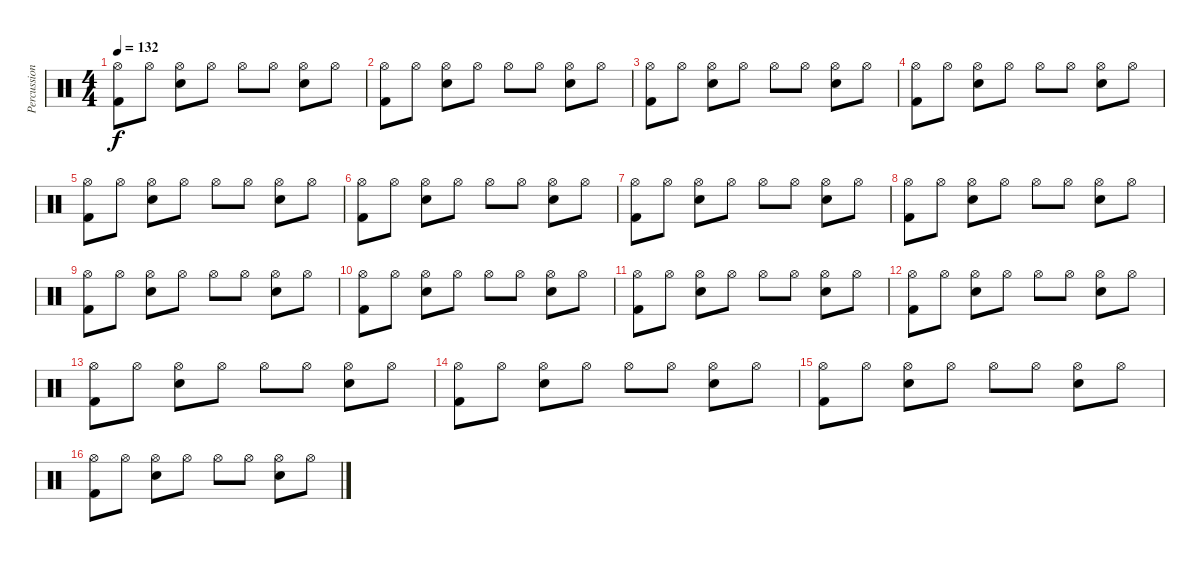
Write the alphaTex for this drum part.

\track ("Percussion" "Percussion") {instrument percussion}
\staff {score}
\articulation defaults
\ts (4 4)
\tempo 132
\clef neutral
\ks c
("Hi-Hat (open)" "Kick (hit) 2").8{dy f} "Hi-Hat (open)".8 ("Hi-Hat (open)" "Snare (hit) 2").8 "Hi-Hat (open)".8 "Hi-Hat (open)".8 "Hi-Hat (open)".8 ("Hi-Hat (open)" "Snare (hit) 2").8 "Hi-Hat (open)".8 |
("Hi-Hat (open)" "Kick (hit) 2").8 "Hi-Hat (open)".8 ("Hi-Hat (open)" "Snare (hit) 2").8 "Hi-Hat (open)".8 "Hi-Hat (open)".8 "Hi-Hat (open)".8 ("Hi-Hat (open)" "Snare (hit) 2").8 "Hi-Hat (open)".8 |
("Hi-Hat (open)" "Kick (hit) 2").8 "Hi-Hat (open)".8 ("Hi-Hat (open)" "Snare (hit) 2").8 "Hi-Hat (open)".8 "Hi-Hat (open)".8 "Hi-Hat (open)".8 ("Hi-Hat (open)" "Snare (hit) 2").8 "Hi-Hat (open)".8 |
("Hi-Hat (open)" "Kick (hit) 2").8 "Hi-Hat (open)".8 ("Hi-Hat (open)" "Snare (hit) 2").8 "Hi-Hat (open)".8 "Hi-Hat (open)".8 "Hi-Hat (open)".8 ("Hi-Hat (open)" "Snare (hit) 2").8 "Hi-Hat (open)".8 |
("Hi-Hat (open)" "Kick (hit) 2").8 "Hi-Hat (open)".8 ("Hi-Hat (open)" "Snare (hit) 2").8 "Hi-Hat (open)".8 "Hi-Hat (open)".8 "Hi-Hat (open)".8 ("Hi-Hat (open)" "Snare (hit) 2").8 "Hi-Hat (open)".8 |
("Hi-Hat (open)" "Kick (hit) 2").8 "Hi-Hat (open)".8 ("Hi-Hat (open)" "Snare (hit) 2").8 "Hi-Hat (open)".8 "Hi-Hat (open)".8 "Hi-Hat (open)".8 ("Hi-Hat (open)" "Snare (hit) 2").8 "Hi-Hat (open)".8 |
("Hi-Hat (open)" "Kick (hit) 2").8 "Hi-Hat (open)".8 ("Hi-Hat (open)" "Snare (hit) 2").8 "Hi-Hat (open)".8 "Hi-Hat (open)".8 "Hi-Hat (open)".8 ("Hi-Hat (open)" "Snare (hit) 2").8 "Hi-Hat (open)".8 |
("Hi-Hat (open)" "Kick (hit) 2").8 "Hi-Hat (open)".8 ("Hi-Hat (open)" "Snare (hit) 2").8 "Hi-Hat (open)".8 "Hi-Hat (open)".8 "Hi-Hat (open)".8 ("Hi-Hat (open)" "Snare (hit) 2").8 "Hi-Hat (open)".8 |
("Hi-Hat (open)" "Kick (hit) 2").8 "Hi-Hat (open)".8 ("Hi-Hat (open)" "Snare (hit) 2").8 "Hi-Hat (open)".8 "Hi-Hat (open)".8 "Hi-Hat (open)".8 ("Hi-Hat (open)" "Snare (hit) 2").8 "Hi-Hat (open)".8 |
("Hi-Hat (open)" "Kick (hit) 2").8 "Hi-Hat (open)".8 ("Hi-Hat (open)" "Snare (hit) 2").8 "Hi-Hat (open)".8 "Hi-Hat (open)".8 "Hi-Hat (open)".8 ("Hi-Hat (open)" "Snare (hit) 2").8 "Hi-Hat (open)".8 |
("Hi-Hat (open)" "Kick (hit) 2").8 "Hi-Hat (open)".8 ("Hi-Hat (open)" "Snare (hit) 2").8 "Hi-Hat (open)".8 "Hi-Hat (open)".8 "Hi-Hat (open)".8 ("Hi-Hat (open)" "Snare (hit) 2").8 "Hi-Hat (open)".8 |
("Hi-Hat (open)" "Kick (hit) 2").8 "Hi-Hat (open)".8 ("Hi-Hat (open)" "Snare (hit) 2").8 "Hi-Hat (open)".8 "Hi-Hat (open)".8 "Hi-Hat (open)".8 ("Hi-Hat (open)" "Snare (hit) 2").8 "Hi-Hat (open)".8 |
("Hi-Hat (open)" "Kick (hit) 2").8 "Hi-Hat (open)".8 ("Hi-Hat (open)" "Snare (hit) 2").8 "Hi-Hat (open)".8 "Hi-Hat (open)".8 "Hi-Hat (open)".8 ("Hi-Hat (open)" "Snare (hit) 2").8 "Hi-Hat (open)".8 |
("Hi-Hat (open)" "Kick (hit) 2").8 "Hi-Hat (open)".8 ("Hi-Hat (open)" "Snare (hit) 2").8 "Hi-Hat (open)".8 "Hi-Hat (open)".8 "Hi-Hat (open)".8 ("Hi-Hat (open)" "Snare (hit) 2").8 "Hi-Hat (open)".8 |
("Hi-Hat (open)" "Kick (hit) 2").8 "Hi-Hat (open)".8 ("Hi-Hat (open)" "Snare (hit) 2").8 "Hi-Hat (open)".8 "Hi-Hat (open)".8 "Hi-Hat (open)".8 ("Hi-Hat (open)" "Snare (hit) 2").8 "Hi-Hat (open)".8 |
("Hi-Hat (open)" "Kick (hit) 2").8 "Hi-Hat (open)".8 ("Hi-Hat (open)" "Snare (hit) 2").8 "Hi-Hat (open)".8 "Hi-Hat (open)".8 "Hi-Hat (open)".8 ("Hi-Hat (open)" "Snare (hit) 2").8 "Hi-Hat (open)".8
